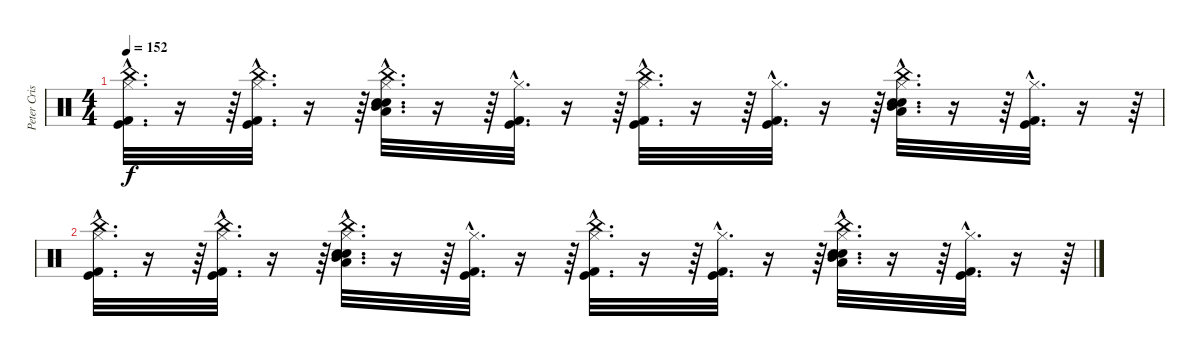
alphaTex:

\track ("Peter Criss" "Peter Cris") {instrument percussion}
\staff {score}
\articulation defaults
\ts (4 4)
\tempo 152
\clef neutral
\ks c
("China (hit)"{hac} "Kick (hit) 2"{hac} "Kick (hit)"{hac} "Hi-Hat (closed)"{hac}).32{d dy f} r.16 r.64 ("Kick (hit)"{hac} "Kick (hit) 2"{hac} "China (hit)"{hac} "Hi-Hat (closed)"{hac}).32{d} r.16 r.64 ("China (hit)"{hac} "Electric Snare (hit)"{hac} "Snare (hit) 2"{hac} "Hi-Hat (closed)"{hac} "Mid Tom (hit)"{hac} "Low Tom (hit)"{hac}).32{d} r.16 r.64 ("Kick (hit) 2"{hac} "Kick (hit)"{hac} "Hi-Hat (closed)"{hac}).32{d} r.16 r.64 ("China (hit)"{hac} "Kick (hit)"{hac} "Kick (hit) 2"{hac} "Hi-Hat (closed)"{hac}).32{d} r.16 r.64 ("Kick (hit) 2"{hac} "Kick (hit)"{hac} "Hi-Hat (closed)"{hac}).32{d} r.16 r.64 ("China (hit)"{hac} "Electric Snare (hit)"{hac} "Snare (hit) 2"{hac} "Hi-Hat (closed)"{hac} "Mid Tom (hit)"{hac} "Low Tom (hit)"{hac}).32{d} r.16 r.64 ("Kick (hit) 2"{hac} "Kick (hit)"{hac} "Hi-Hat (closed)"{hac}).32{d} r.16 r.64 |
("China (hit)"{hac} "Kick (hit) 2"{hac} "Kick (hit)"{hac} "Hi-Hat (closed)"{hac}).32{d} r.16 r.64 ("Kick (hit)"{hac} "Kick (hit) 2"{hac} "China (hit)"{hac} "Hi-Hat (closed)"{hac}).32{d} r.16 r.64 ("China (hit)"{hac} "Electric Snare (hit)"{hac} "Snare (hit) 2"{hac} "Hi-Hat (closed)"{hac} "Mid Tom (hit)"{hac} "Low Tom (hit)"{hac}).32{d} r.16 r.64 ("Kick (hit) 2"{hac} "Kick (hit)"{hac} "Hi-Hat (closed)"{hac}).32{d} r.16 r.64 ("China (hit)"{hac} "Kick (hit)"{hac} "Kick (hit) 2"{hac} "Hi-Hat (closed)"{hac}).32{d} r.16 r.64 ("Kick (hit) 2"{hac} "Kick (hit)"{hac} "Hi-Hat (closed)"{hac}).32{d} r.16 r.64 ("China (hit)"{hac} "Electric Snare (hit)"{hac} "Snare (hit) 2"{hac} "Hi-Hat (closed)"{hac} "Mid Tom (hit)"{hac} "Low Tom (hit)"{hac}).32{d} r.16 r.64 ("Kick (hit) 2"{hac} "Kick (hit)"{hac} "Hi-Hat (closed)"{hac}).32{d} r.16 r.64
